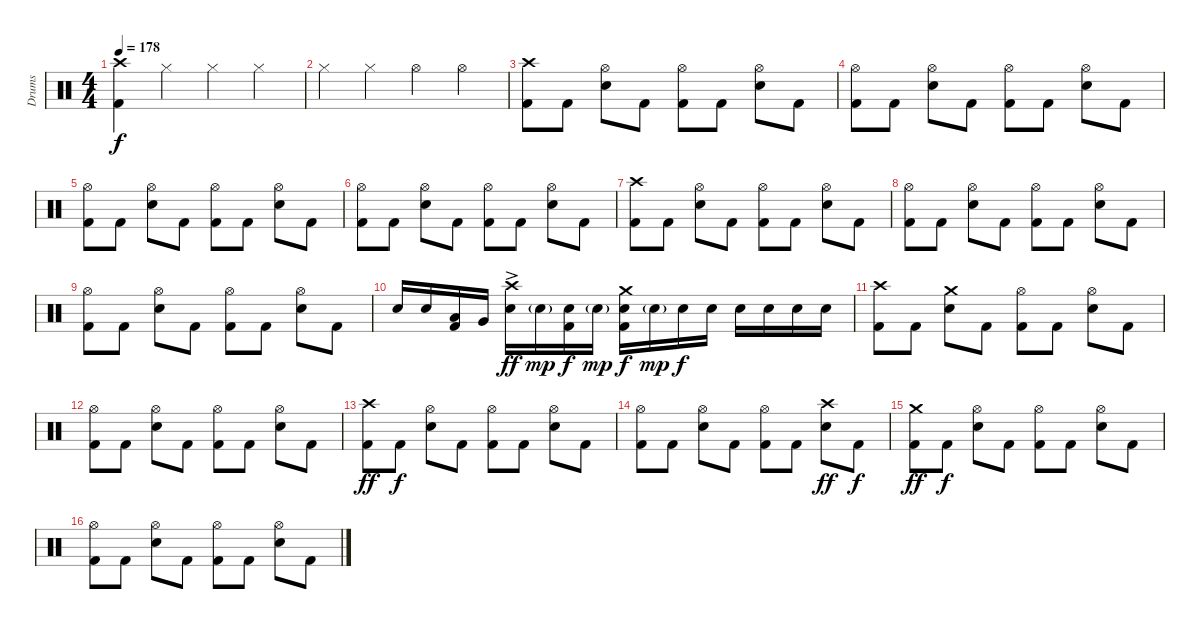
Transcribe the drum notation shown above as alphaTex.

\track ("Drums" "Drums") {instrument percussion}
\staff {score}
\articulation defaults
\ts (4 4)
\tempo 178
\clef neutral
\ks c
("Crash high (hit)" "Kick (hit) 2").4{dy f} "Hi-Hat (closed)".4 "Hi-Hat (closed)".4 "Hi-Hat (closed)".4 |
"Hi-Hat (closed)".4 "Hi-Hat (closed)".4 "Hi-Hat (open)".4 "Hi-Hat (open)".4 |
("Crash high (hit)" "Kick (hit) 2").8 "Kick (hit) 2".8 ("Hi-Hat (open)" "Electric Snare (hit)").8 "Kick (hit) 2".8 ("Hi-Hat (open)" "Kick (hit) 2").8 "Kick (hit) 2".8 ("Hi-Hat (open)" "Electric Snare (hit)").8 "Kick (hit) 2".8 |
("Hi-Hat (open)" "Kick (hit) 2").8 "Kick (hit) 2".8 ("Hi-Hat (open)" "Electric Snare (hit)").8 "Kick (hit) 2".8 ("Hi-Hat (open)" "Kick (hit) 2").8 "Kick (hit) 2".8 ("Hi-Hat (open)" "Electric Snare (hit)").8 "Kick (hit) 2".8 |
("Hi-Hat (open)" "Kick (hit) 2").8 "Kick (hit) 2".8 ("Hi-Hat (open)" "Electric Snare (hit)").8 "Kick (hit) 2".8 ("Hi-Hat (open)" "Kick (hit) 2").8 "Kick (hit) 2".8 ("Hi-Hat (open)" "Electric Snare (hit)").8 "Kick (hit) 2".8 |
("Hi-Hat (open)" "Kick (hit) 2").8 "Kick (hit) 2".8 ("Hi-Hat (open)" "Electric Snare (hit)").8 "Kick (hit) 2".8 ("Hi-Hat (open)" "Kick (hit) 2").8 "Kick (hit) 2".8 ("Hi-Hat (open)" "Electric Snare (hit)").8 "Kick (hit) 2".8 |
("Crash high (hit)" "Kick (hit) 2").8 "Kick (hit) 2".8 ("Hi-Hat (open)" "Electric Snare (hit)").8 "Kick (hit) 2".8 ("Hi-Hat (open)" "Kick (hit) 2").8 "Kick (hit) 2".8 ("Hi-Hat (open)" "Electric Snare (hit)").8 "Kick (hit) 2".8 |
("Hi-Hat (open)" "Kick (hit) 2").8 "Kick (hit) 2".8 ("Hi-Hat (open)" "Electric Snare (hit)").8 "Kick (hit) 2".8 ("Hi-Hat (open)" "Kick (hit) 2").8 "Kick (hit) 2".8 ("Hi-Hat (open)" "Electric Snare (hit)").8 "Kick (hit) 2".8 |
("Hi-Hat (open)" "Kick (hit) 2").8 "Kick (hit) 2".8 ("Hi-Hat (open)" "Electric Snare (hit)").8 "Kick (hit) 2".8 ("Hi-Hat (open)" "Kick (hit) 2").8 "Kick (hit) 2".8 ("Hi-Hat (open)" "Electric Snare (hit)").8 "Kick (hit) 2".8 |
"Electric Snare (hit)".16 "Electric Snare (hit)".16 ("Low Tom (hit)" "Kick (hit) 2").16 "Very Low Tom (hit)".16 ("Crash high (hit)" "Electric Snare (hit)"{ac}).16{dy ff} "Electric Snare (hit)"{g}.16{dy mp} ("Electric Snare (hit)" "Kick (hit) 2").16{dy f} "Electric Snare (hit)"{g}.16{dy mp} ("Crash medium (hit)" "Electric Snare (hit)" "Kick (hit) 2").16{dy f} "Electric Snare (hit)"{g}.16{dy mp} "Electric Snare (hit)".16{dy f} "Electric Snare (hit)".16 "Electric Snare (hit)".16 "Electric Snare (hit)".16 "Electric Snare (hit)".16 "Electric Snare (hit)".16 |
("Crash high (hit)" "Kick (hit) 2").8 "Kick (hit) 2".8 ("Crash medium (hit)" "Electric Snare (hit)").8 "Kick (hit) 2".8 ("Hi-Hat (open)" "Kick (hit) 2").8 "Kick (hit) 2".8 ("Hi-Hat (open)" "Electric Snare (hit)").8 "Kick (hit) 2".8 |
("Hi-Hat (open)" "Kick (hit) 2").8 "Kick (hit) 2".8 ("Hi-Hat (open)" "Electric Snare (hit)").8 "Kick (hit) 2".8 ("Hi-Hat (open)" "Kick (hit) 2").8 "Kick (hit) 2".8 ("Hi-Hat (open)" "Electric Snare (hit)").8 "Kick (hit) 2".8 |
("Crash high (hit)" "Kick (hit) 2").8{dy ff} "Kick (hit) 2".8{dy f} ("Hi-Hat (open)" "Electric Snare (hit)").8 "Kick (hit) 2".8 ("Hi-Hat (open)" "Kick (hit) 2").8 "Kick (hit) 2".8 ("Hi-Hat (open)" "Electric Snare (hit)").8 "Kick (hit) 2".8 |
("Hi-Hat (open)" "Kick (hit) 2").8 "Kick (hit) 2".8 ("Hi-Hat (open)" "Electric Snare (hit)").8 "Kick (hit) 2".8 ("Hi-Hat (open)" "Kick (hit) 2").8 "Kick (hit) 2".8 ("Crash high (hit)" "Electric Snare (hit)").8{dy ff} "Kick (hit) 2".8{dy f} |
("Crash medium (hit)" "Kick (hit) 2").8{dy ff} "Kick (hit) 2".8{dy f} ("Hi-Hat (open)" "Electric Snare (hit)").8 "Kick (hit) 2".8 ("Hi-Hat (open)" "Kick (hit) 2").8 "Kick (hit) 2".8 ("Hi-Hat (open)" "Electric Snare (hit)").8 "Kick (hit) 2".8 |
("Hi-Hat (open)" "Kick (hit) 2").8 "Kick (hit) 2".8 ("Hi-Hat (open)" "Electric Snare (hit)").8 "Kick (hit) 2".8 ("Hi-Hat (open)" "Kick (hit) 2").8 "Kick (hit) 2".8 ("Hi-Hat (open)" "Electric Snare (hit)").8 "Kick (hit) 2".8
